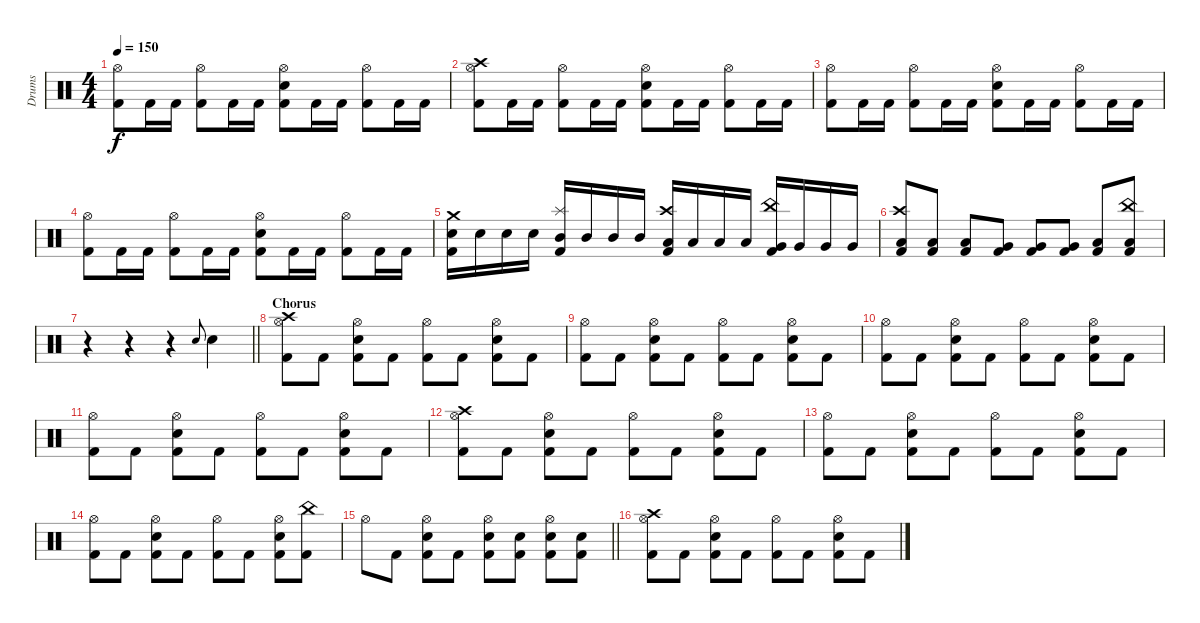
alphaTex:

\track ("Drums" "Drums") {instrument percussion}
\staff {score}
\articulation defaults
\ts (4 4)
\tempo 150
\clef neutral
\ks c
("Hi-Hat (open)" "Kick (hit) 2").8{dy f} "Kick (hit) 2".16 "Kick (hit) 2".16 ("Hi-Hat (open)" "Kick (hit) 2").8 "Kick (hit) 2".16 "Kick (hit) 2".16 ("Hi-Hat (open)" "Snare (hit) 2" "Kick (hit) 2").8 "Kick (hit) 2".16 "Kick (hit) 2".16 ("Hi-Hat (open)" "Kick (hit) 2").8 "Kick (hit) 2".16 "Kick (hit) 2".16 |
("Crash high (hit)" "Hi-Hat (open)" "Kick (hit) 2").8 "Kick (hit) 2".16 "Kick (hit) 2".16 ("Hi-Hat (open)" "Kick (hit) 2").8 "Kick (hit) 2".16 "Kick (hit) 2".16 ("Hi-Hat (open)" "Snare (hit) 2" "Kick (hit) 2").8 "Kick (hit) 2".16 "Kick (hit) 2".16 ("Hi-Hat (open)" "Kick (hit) 2").8 "Kick (hit) 2".16 "Kick (hit) 2".16 |
("Hi-Hat (open)" "Kick (hit) 2").8 "Kick (hit) 2".16 "Kick (hit) 2".16 ("Hi-Hat (open)" "Kick (hit) 2").8 "Kick (hit) 2".16 "Kick (hit) 2".16 ("Hi-Hat (open)" "Snare (hit) 2" "Kick (hit) 2").8 "Kick (hit) 2".16 "Kick (hit) 2".16 ("Hi-Hat (open)" "Kick (hit) 2").8 "Kick (hit) 2".16 "Kick (hit) 2".16 |
("Hi-Hat (open)" "Kick (hit) 2").8 "Kick (hit) 2".16 "Kick (hit) 2".16 ("Hi-Hat (open)" "Kick (hit) 2").8 "Kick (hit) 2".16 "Kick (hit) 2".16 ("Hi-Hat (open)" "Snare (hit) 2" "Kick (hit) 2").8 "Kick (hit) 2".16 "Kick (hit) 2".16 ("Hi-Hat (open)" "Kick (hit) 2").8 "Kick (hit) 2".16 "Kick (hit) 2".16 |
("Crash medium (hit)" "Snare (hit) 2" "Kick (hit) 2").16 "Snare (hit) 2".16 "Snare (hit) 2".16 "Snare (hit) 2".16 ("Splash (hit)" "Mid Tom (hit)" "Kick (hit) 2").16 "Mid Tom (hit)".16 "Mid Tom (hit)".16 "Mid Tom (hit)".16 ("Crash high (hit)" "Low Tom (hit)" "Kick (hit) 2").16 "Low Tom (hit)".16 "Low Tom (hit)".16 "Low Tom (hit)".16 ("China (hit)" "Very Low Tom (hit)" "Kick (hit) 2").16 "Very Low Tom (hit)".16 "Very Low Tom (hit)".16 "Very Low Tom (hit)".16 |
("Crash high (hit)" "Low Tom (hit)" "Kick (hit) 2").8 ("Low Tom (hit)" "Kick (hit) 2").8 ("Low Tom (hit)" "Kick (hit) 2").8 ("Very Low Tom (hit)" "Kick (hit) 2").8 ("Very Low Tom (hit)" "Kick (hit) 2").8 ("Very Low Tom (hit)" "Kick (hit) 2").8 ("Low Floor Tom (hit)" "Kick (hit) 2").8 ("China (hit)" "Low Floor Tom (hit)" "Kick (hit) 2").8 |
\barLineRight lightlight
r.4 r.4 r.4 "Snare (hit) 2".8{gr onbeat} "Snare (hit) 2".4 |
\section ("" "Chorus")
("Crash high (hit)" "Hi-Hat (open)" "Kick (hit) 2").8 "Kick (hit) 2".8 ("Hi-Hat (open)" "Snare (hit) 2" "Kick (hit) 2").8 "Kick (hit) 2".8 ("Hi-Hat (open)" "Kick (hit) 2").8 "Kick (hit) 2".8 ("Hi-Hat (open)" "Snare (hit) 2" "Kick (hit) 2").8 "Kick (hit) 2".8 |
("Hi-Hat (open)" "Kick (hit) 2").8 "Kick (hit) 2".8 ("Hi-Hat (open)" "Snare (hit) 2" "Kick (hit) 2").8 "Kick (hit) 2".8 ("Hi-Hat (open)" "Kick (hit) 2").8 "Kick (hit) 2".8 ("Hi-Hat (open)" "Snare (hit) 2" "Kick (hit) 2").8 "Kick (hit) 2".8 |
("Hi-Hat (open)" "Kick (hit) 2").8 "Kick (hit) 2".8 ("Hi-Hat (open)" "Snare (hit) 2" "Kick (hit) 2").8 "Kick (hit) 2".8 ("Hi-Hat (open)" "Kick (hit) 2").8 "Kick (hit) 2".8 ("Hi-Hat (open)" "Snare (hit) 2" "Kick (hit) 2").8 "Kick (hit) 2".8 |
("Hi-Hat (open)" "Kick (hit) 2").8 "Kick (hit) 2".8 ("Hi-Hat (open)" "Snare (hit) 2" "Kick (hit) 2").8 "Kick (hit) 2".8 ("Hi-Hat (open)" "Kick (hit) 2").8 "Kick (hit) 2".8 ("Hi-Hat (open)" "Snare (hit) 2" "Kick (hit) 2").8 "Kick (hit) 2".8 |
("Crash high (hit)" "Hi-Hat (open)" "Kick (hit) 2").8 "Kick (hit) 2".8 ("Hi-Hat (open)" "Snare (hit) 2" "Kick (hit) 2").8 "Kick (hit) 2".8 ("Hi-Hat (open)" "Kick (hit) 2").8 "Kick (hit) 2".8 ("Hi-Hat (open)" "Snare (hit) 2" "Kick (hit) 2").8 "Kick (hit) 2".8 |
("Hi-Hat (open)" "Kick (hit) 2").8 "Kick (hit) 2".8 ("Hi-Hat (open)" "Snare (hit) 2" "Kick (hit) 2").8 "Kick (hit) 2".8 ("Hi-Hat (open)" "Kick (hit) 2").8 "Kick (hit) 2".8 ("Hi-Hat (open)" "Snare (hit) 2" "Kick (hit) 2").8 "Kick (hit) 2".8 |
("Hi-Hat (open)" "Kick (hit) 2").8 "Kick (hit) 2".8 ("Hi-Hat (open)" "Snare (hit) 2" "Kick (hit) 2").8 "Kick (hit) 2".8 ("Hi-Hat (open)" "Kick (hit) 2").8 "Kick (hit) 2".8 ("Hi-Hat (open)" "Snare (hit) 2" "Kick (hit) 2").8 ("China (hit)" "Kick (hit) 2").8 |
\barLineRight lightlight "Hi-Hat (open)".8 "Kick (hit) 2".8
("Hi-Hat (open)" "Snare (hit) 2" "Kick (hit) 2").8 "Kick (hit) 2".8 ("Hi-Hat (open)" "Snare (hit) 2" "Kick (hit) 2").8 ("Snare (hit) 2" "Kick (hit) 2").8 ("Hi-Hat (open)" "Snare (hit) 2" "Kick (hit) 2").8 ("Snare (hit) 2" "Kick (hit) 2").8 |
("Crash high (hit)" "Hi-Hat (open)" "Kick (hit) 2").8 "Kick (hit) 2".8 ("Hi-Hat (open)" "Snare (hit) 2" "Kick (hit) 2").8 "Kick (hit) 2".8 ("Hi-Hat (open)" "Kick (hit) 2").8 "Kick (hit) 2".8 ("Hi-Hat (open)" "Snare (hit) 2" "Kick (hit) 2").8 "Kick (hit) 2".8
